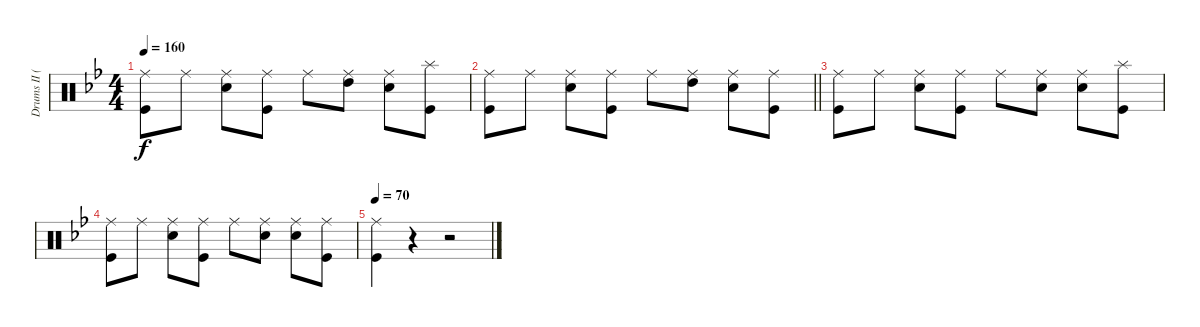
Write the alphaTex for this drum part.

\track ("Drums II (Tainaka Ritsu)" "Drums II (") {instrument percussion}
\staff {score}
\articulation defaults
\ts (4 4)
\tempo 160
\clef neutral
\ks bb
("Ride (middle)" "Kick (hit)").8{dy f} "Ride (middle)".8 ("Ride (middle)" "Snare (hit) 2").8 ("Ride (middle)" "Kick (hit)").8 "Ride (middle)".8 ("Ride (middle)" "High Tom (hit)").8 ("Ride (middle)" "Snare (hit) 2").8 ("Splash (hit)" "Kick (hit)").8 |
\barLineRight lightlight
("Ride (middle)" "Kick (hit)").8 "Ride (middle)".8 ("Ride (middle)" "Snare (hit) 2").8 ("Ride (middle)" "Kick (hit)").8 "Ride (middle)".8 ("Ride (middle)" "High Tom (hit)").8 ("Ride (middle)" "Snare (hit) 2").8 ("Ride (middle)" "Kick (hit)").8 |
("Ride (middle)" "Kick (hit)").8 "Ride (middle)".8 ("Ride (middle)" "Snare (hit) 2").8 ("Ride (middle)" "Kick (hit)").8 "Ride (middle)".8 ("Ride (middle)" "Snare (hit) 2").8 ("Ride (middle)" "Snare (hit) 2").8 ("Splash (hit)" "Kick (hit)").8 |
("Ride (middle)" "Kick (hit)").8 "Ride (middle)".8 ("Ride (middle)" "Snare (hit) 2").8 ("Ride (middle)" "Kick (hit)").8 "Ride (middle)".8 ("Ride (middle)" "Snare (hit) 2").8 ("Ride (middle)" "Snare (hit) 2").8 ("Ride (middle)" "Kick (hit)").8 |
\tempo 70
("Ride (middle)" "Kick (hit)").4 r.4 r.2
